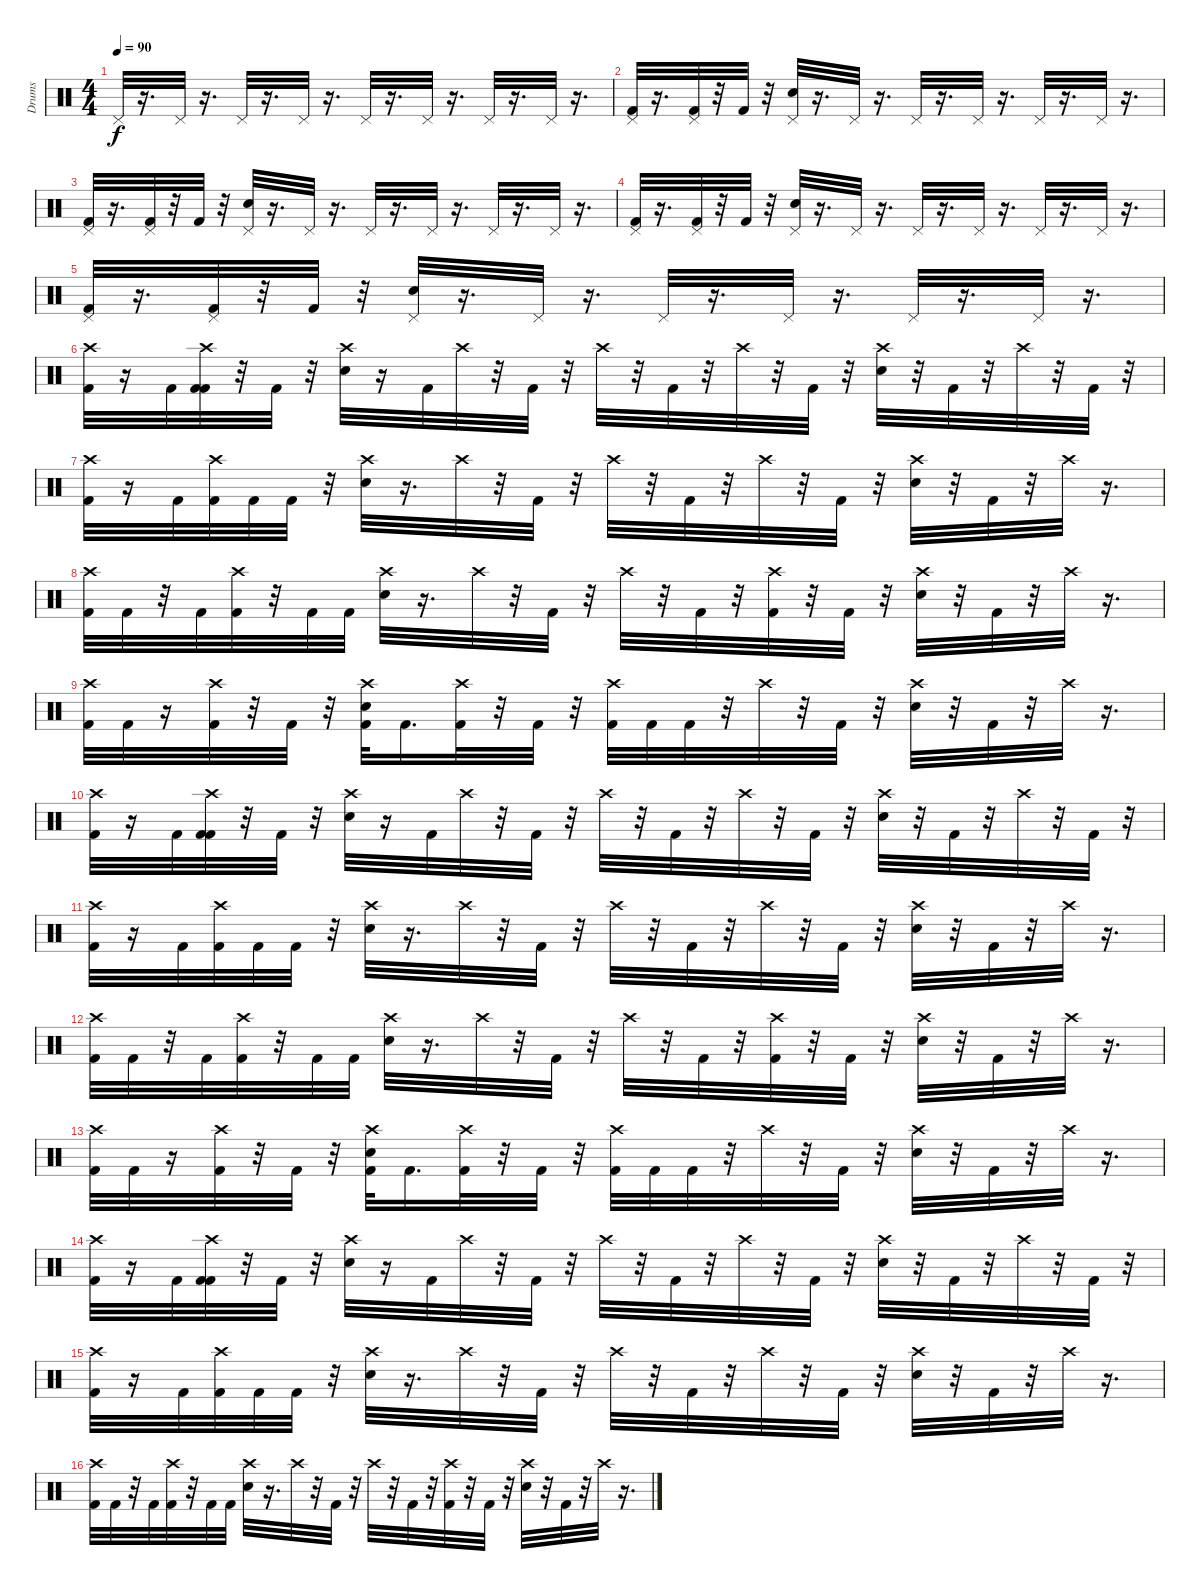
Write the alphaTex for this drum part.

\track ("Drums" "Drums") {instrument percussion}
\staff {score}
\articulation defaults
\ts (4 4)
\tempo 90
\clef neutral
\ks c "Pedal Hi-Hat (hit)".32{dy f}
r.16{d} "Pedal Hi-Hat (hit)".32 r.16{d} "Pedal Hi-Hat (hit)".32 r.16{d} "Pedal Hi-Hat (hit)".32 r.16{d} "Pedal Hi-Hat (hit)".32 r.16{d} "Pedal Hi-Hat (hit)".32 r.16{d} "Pedal Hi-Hat (hit)".32 r.16{d} "Pedal Hi-Hat (hit)".32 r.16{d} |
("Kick (hit) 2" "Pedal Hi-Hat (hit)").32 r.16{d} ("Kick (hit) 2" "Pedal Hi-Hat (hit)").32 r.32 "Kick (hit) 2".32 r.32 ("Snare (hit) 2" "Pedal Hi-Hat (hit)").32 r.16{d} "Pedal Hi-Hat (hit)".32 r.16{d} "Pedal Hi-Hat (hit)".32 r.16{d} "Pedal Hi-Hat (hit)".32 r.16{d} "Pedal Hi-Hat (hit)".32 r.16{d} "Pedal Hi-Hat (hit)".32 r.16{d} |
("Kick (hit) 2" "Pedal Hi-Hat (hit)").32 r.16{d} ("Kick (hit) 2" "Pedal Hi-Hat (hit)").32 r.32 "Kick (hit) 2".32 r.32 ("Snare (hit) 2" "Pedal Hi-Hat (hit)").32 r.16{d} "Pedal Hi-Hat (hit)".32 r.16{d} "Pedal Hi-Hat (hit)".32 r.16{d} "Pedal Hi-Hat (hit)".32 r.16{d} "Pedal Hi-Hat (hit)".32 r.16{d} "Pedal Hi-Hat (hit)".32 r.16{d} |
("Kick (hit) 2" "Pedal Hi-Hat (hit)").32 r.16{d} ("Kick (hit) 2" "Pedal Hi-Hat (hit)").32 r.32 "Kick (hit) 2".32 r.32 ("Snare (hit) 2" "Pedal Hi-Hat (hit)").32 r.16{d} "Pedal Hi-Hat (hit)".32 r.16{d} "Pedal Hi-Hat (hit)".32 r.16{d} "Pedal Hi-Hat (hit)".32 r.16{d} "Pedal Hi-Hat (hit)".32 r.16{d} "Pedal Hi-Hat (hit)".32 r.16{d} |
("Kick (hit) 2" "Pedal Hi-Hat (hit)").32 r.16{d} ("Kick (hit) 2" "Pedal Hi-Hat (hit)").32 r.32 "Kick (hit) 2".32 r.32 ("Snare (hit) 2" "Pedal Hi-Hat (hit)").32 r.16{d} "Pedal Hi-Hat (hit)".32 r.16{d} "Pedal Hi-Hat (hit)".32 r.16{d} "Pedal Hi-Hat (hit)".32 r.16{d} "Pedal Hi-Hat (hit)".32 r.16{d} "Pedal Hi-Hat (hit)".32 r.16{d} |
("Kick (hit) 2" "Crash high (hit)").32 r.16 "Kick (hit) 2".32 ("Kick (hit) 2" "Kick (hit) 2" "Crash high (hit)").32 r.32 "Kick (hit) 2".32 r.32 ("Snare (hit) 2" "Crash high (hit)").32 r.16 "Kick (hit) 2".32 "Crash high (hit)".32 r.32 "Kick (hit) 2".32 r.32 "Crash high (hit)".32 r.32 "Kick (hit) 2".32 r.32 "Crash high (hit)".32 r.32 "Kick (hit) 2".32 r.32 ("Snare (hit) 2" "Crash high (hit)").32 r.32 "Kick (hit) 2".32 r.32 "Crash high (hit)".32 r.32 "Kick (hit) 2".32 r.32 |
("Kick (hit) 2" "Crash high (hit)").32 r.16 "Kick (hit) 2".32 ("Kick (hit) 2" "Crash high (hit)").32 "Kick (hit) 2".32 "Kick (hit) 2".32 r.32 ("Snare (hit) 2" "Crash high (hit)").32 r.16{d} "Crash high (hit)".32 r.32 "Kick (hit) 2".32 r.32 "Crash high (hit)".32 r.32 "Kick (hit) 2".32 r.32 "Crash high (hit)".32 r.32 "Kick (hit) 2".32 r.32 ("Snare (hit) 2" "Crash high (hit)").32 r.32 "Kick (hit) 2".32 r.32 "Crash high (hit)".32 r.16{d} |
("Kick (hit) 2" "Crash high (hit)").32 "Kick (hit) 2".32 r.32 "Kick (hit) 2".32 ("Kick (hit) 2" "Crash high (hit)").32 r.32 "Kick (hit) 2".32 "Kick (hit) 2".32 ("Snare (hit) 2" "Crash high (hit)").32 r.16{d} "Crash high (hit)".32 r.32 "Kick (hit) 2".32 r.32 "Crash high (hit)".32 r.32 "Kick (hit) 2".32 r.32 ("Kick (hit) 2" "Crash high (hit)").32 r.32 "Kick (hit) 2".32 r.32 ("Snare (hit) 2" "Crash high (hit)").32 r.32 "Kick (hit) 2".32 r.32 "Crash high (hit)".32 r.16{d} |
("Kick (hit) 2" "Crash high (hit)").32 "Kick (hit) 2".32 r.16 ("Kick (hit) 2" "Crash high (hit)").32 r.32 "Kick (hit) 2".32 r.32 ("Snare (hit) 2" "Crash high (hit)" "Kick (hit) 2").32 "Kick (hit) 2".16{d} ("Crash high (hit)" "Kick (hit) 2").32 r.32 "Kick (hit) 2".32 r.32 ("Crash high (hit)" "Kick (hit) 2").32 "Kick (hit) 2".32 "Kick (hit) 2".32 r.32 "Crash high (hit)".32 r.32 "Kick (hit) 2".32 r.32 ("Snare (hit) 2" "Crash high (hit)").32 r.32 "Kick (hit) 2".32 r.32 "Crash high (hit)".32 r.16{d} |
("Kick (hit) 2" "Crash high (hit)").32 r.16 "Kick (hit) 2".32 ("Kick (hit) 2" "Kick (hit) 2" "Crash high (hit)").32 r.32 "Kick (hit) 2".32 r.32 ("Snare (hit) 2" "Crash high (hit)").32 r.16 "Kick (hit) 2".32 "Crash high (hit)".32 r.32 "Kick (hit) 2".32 r.32 "Crash high (hit)".32 r.32 "Kick (hit) 2".32 r.32 "Crash high (hit)".32 r.32 "Kick (hit) 2".32 r.32 ("Snare (hit) 2" "Crash high (hit)").32 r.32 "Kick (hit) 2".32 r.32 "Crash high (hit)".32 r.32 "Kick (hit) 2".32 r.32 |
("Kick (hit) 2" "Crash high (hit)").32 r.16 "Kick (hit) 2".32 ("Kick (hit) 2" "Crash high (hit)").32 "Kick (hit) 2".32 "Kick (hit) 2".32 r.32 ("Snare (hit) 2" "Crash high (hit)").32 r.16{d} "Crash high (hit)".32 r.32 "Kick (hit) 2".32 r.32 "Crash high (hit)".32 r.32 "Kick (hit) 2".32 r.32 "Crash high (hit)".32 r.32 "Kick (hit) 2".32 r.32 ("Snare (hit) 2" "Crash high (hit)").32 r.32 "Kick (hit) 2".32 r.32 "Crash high (hit)".32 r.16{d} |
("Kick (hit) 2" "Crash high (hit)").32 "Kick (hit) 2".32 r.32 "Kick (hit) 2".32 ("Kick (hit) 2" "Crash high (hit)").32 r.32 "Kick (hit) 2".32 "Kick (hit) 2".32 ("Snare (hit) 2" "Crash high (hit)").32 r.16{d} "Crash high (hit)".32 r.32 "Kick (hit) 2".32 r.32 "Crash high (hit)".32 r.32 "Kick (hit) 2".32 r.32 ("Kick (hit) 2" "Crash high (hit)").32 r.32 "Kick (hit) 2".32 r.32 ("Snare (hit) 2" "Crash high (hit)").32 r.32 "Kick (hit) 2".32 r.32 "Crash high (hit)".32 r.16{d} |
("Kick (hit) 2" "Crash high (hit)").32 "Kick (hit) 2".32 r.16 ("Kick (hit) 2" "Crash high (hit)").32 r.32 "Kick (hit) 2".32 r.32 ("Snare (hit) 2" "Crash high (hit)" "Kick (hit) 2").32 "Kick (hit) 2".16{d} ("Crash high (hit)" "Kick (hit) 2").32 r.32 "Kick (hit) 2".32 r.32 ("Crash high (hit)" "Kick (hit) 2").32 "Kick (hit) 2".32 "Kick (hit) 2".32 r.32 "Crash high (hit)".32 r.32 "Kick (hit) 2".32 r.32 ("Snare (hit) 2" "Crash high (hit)").32 r.32 "Kick (hit) 2".32 r.32 "Crash high (hit)".32 r.16{d} |
("Kick (hit) 2" "Crash high (hit)").32 r.16 "Kick (hit) 2".32 ("Kick (hit) 2" "Kick (hit) 2" "Crash high (hit)").32 r.32 "Kick (hit) 2".32 r.32 ("Snare (hit) 2" "Crash high (hit)").32 r.16 "Kick (hit) 2".32 "Crash high (hit)".32 r.32 "Kick (hit) 2".32 r.32 "Crash high (hit)".32 r.32 "Kick (hit) 2".32 r.32 "Crash high (hit)".32 r.32 "Kick (hit) 2".32 r.32 ("Snare (hit) 2" "Crash high (hit)").32 r.32 "Kick (hit) 2".32 r.32 "Crash high (hit)".32 r.32 "Kick (hit) 2".32 r.32 |
("Kick (hit) 2" "Crash high (hit)").32 r.16 "Kick (hit) 2".32 ("Kick (hit) 2" "Crash high (hit)").32 "Kick (hit) 2".32 "Kick (hit) 2".32 r.32 ("Snare (hit) 2" "Crash high (hit)").32 r.16{d} "Crash high (hit)".32 r.32 "Kick (hit) 2".32 r.32 "Crash high (hit)".32 r.32 "Kick (hit) 2".32 r.32 "Crash high (hit)".32 r.32 "Kick (hit) 2".32 r.32 ("Snare (hit) 2" "Crash high (hit)").32 r.32 "Kick (hit) 2".32 r.32 "Crash high (hit)".32 r.16{d} |
("Kick (hit) 2" "Crash high (hit)").32 "Kick (hit) 2".32 r.32 "Kick (hit) 2".32 ("Kick (hit) 2" "Crash high (hit)").32 r.32 "Kick (hit) 2".32 "Kick (hit) 2".32 ("Snare (hit) 2" "Crash high (hit)").32 r.16{d} "Crash high (hit)".32 r.32 "Kick (hit) 2".32 r.32 "Crash high (hit)".32 r.32 "Kick (hit) 2".32 r.32 ("Kick (hit) 2" "Crash high (hit)").32 r.32 "Kick (hit) 2".32 r.32 ("Snare (hit) 2" "Crash high (hit)").32 r.32 "Kick (hit) 2".32 r.32 "Crash high (hit)".32 r.16{d}
